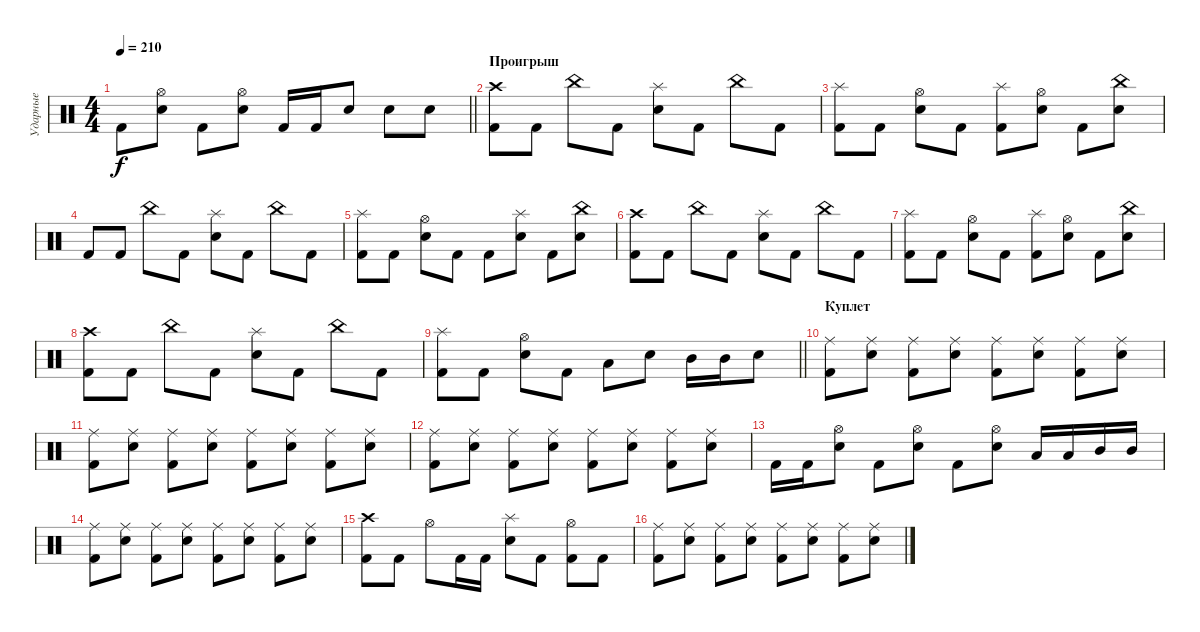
\track ("Ударные" "Ударные") {instrument percussion}
\staff {score}
\articulation defaults
\ts (4 4)
\tempo 210
\clef neutral
\barLineRight lightlight
\ks c "Kick (hit) 2".8{dy f}
("Electric Snare (hit)" "Hi-Hat (open)").8 "Kick (hit) 2".8 ("Electric Snare (hit)" "Hi-Hat (open)").8 "Kick (hit) 2".16 "Kick (hit) 2".16 "Electric Snare (hit)".8 "Electric Snare (hit)".8 "Electric Snare (hit)".8 |
\section ("" "Проигрыш")
("Kick (hit) 2" "Crash high (hit)").8 "Kick (hit) 2".8 "China (hit)".8 "Kick (hit) 2".8 ("Electric Snare (hit)" "Splash (hit)").8 "Kick (hit) 2".8 "China (hit)".8 "Kick (hit) 2".8 |
("Kick (hit) 2" "Splash (hit)").8 "Kick (hit) 2".8 ("Electric Snare (hit)" "Hi-Hat (open)").8 "Kick (hit) 2".8 ("Kick (hit) 2" "Splash (hit)").8 ("Electric Snare (hit)" "Hi-Hat (open)").8 "Kick (hit) 2".8 ("Electric Snare (hit)" "China (hit)").8 |
"Kick (hit) 2".8 "Kick (hit) 2".8 "China (hit)".8 "Kick (hit) 2".8 ("Electric Snare (hit)" "Splash (hit)").8 "Kick (hit) 2".8 "China (hit)".8 "Kick (hit) 2".8 |
("Kick (hit) 2" "Splash (hit)").8 "Kick (hit) 2".8 ("Electric Snare (hit)" "Hi-Hat (open)").8 "Kick (hit) 2".8 "Kick (hit) 2".8 ("Electric Snare (hit)" "Splash (hit)").8 "Kick (hit) 2".8 ("Electric Snare (hit)" "China (hit)").8 |
("Kick (hit) 2" "Crash high (hit)").8 "Kick (hit) 2".8 "China (hit)".8 "Kick (hit) 2".8 ("Electric Snare (hit)" "Splash (hit)").8 "Kick (hit) 2".8 "China (hit)".8 "Kick (hit) 2".8 |
("Kick (hit) 2" "Splash (hit)").8 "Kick (hit) 2".8 ("Electric Snare (hit)" "Hi-Hat (open)").8 "Kick (hit) 2".8 ("Kick (hit) 2" "Splash (hit)").8 ("Electric Snare (hit)" "Hi-Hat (open)").8 "Kick (hit) 2".8 ("Electric Snare (hit)" "China (hit)").8 |
("Kick (hit) 2" "Crash high (hit)").8 "Kick (hit) 2".8 "China (hit)".8 "Kick (hit) 2".8 ("Electric Snare (hit)" "Splash (hit)").8 "Kick (hit) 2".8 "China (hit)".8 "Kick (hit) 2".8 |
\barLineRight lightlight
("Kick (hit) 2" "Splash (hit)").8 "Kick (hit) 2".8 ("Electric Snare (hit)" "Hi-Hat (open)").8 "Kick (hit) 2".8 "Low Tom (hit)".8 "Electric Snare (hit)".8 "Mid Tom (hit)".16 "Mid Tom (hit)".16 "Electric Snare (hit)".8 |
\section ("" "Куплет")
("Kick (hit) 2" "Ride (middle)").8 ("Electric Snare (hit)" "Ride (middle)").8 ("Kick (hit) 2" "Ride (middle)").8 ("Electric Snare (hit)" "Ride (middle)").8 ("Kick (hit) 2" "Ride (middle)").8 ("Electric Snare (hit)" "Ride (middle)").8 ("Kick (hit) 2" "Ride (middle)").8 ("Electric Snare (hit)" "Ride (middle)").8 |
("Kick (hit) 2" "Ride (middle)").8 ("Electric Snare (hit)" "Ride (middle)").8 ("Kick (hit) 2" "Ride (middle)").8 ("Electric Snare (hit)" "Ride (middle)").8 ("Kick (hit) 2" "Ride (middle)").8 ("Electric Snare (hit)" "Ride (middle)").8 ("Kick (hit) 2" "Ride (middle)").8 ("Electric Snare (hit)" "Ride (middle)").8 |
("Kick (hit) 2" "Ride (middle)").8 ("Electric Snare (hit)" "Ride (middle)").8 ("Kick (hit) 2" "Ride (middle)").8 ("Electric Snare (hit)" "Ride (middle)").8 ("Kick (hit) 2" "Ride (middle)").8 ("Electric Snare (hit)" "Ride (middle)").8 ("Kick (hit) 2" "Ride (middle)").8 ("Electric Snare (hit)" "Ride (middle)").8 |
"Kick (hit) 2".16 "Kick (hit) 2".16 ("Electric Snare (hit)" "Hi-Hat (open)").8 "Kick (hit) 2".8 ("Electric Snare (hit)" "Hi-Hat (open)").8 "Kick (hit) 2".8 ("Electric Snare (hit)" "Hi-Hat (open)").8 "Low Tom (hit)".16 "Low Tom (hit)".16 "Mid Tom (hit)".16 "Mid Tom (hit)".16 |
("Kick (hit) 2" "Ride (middle)").8 ("Electric Snare (hit)" "Ride (middle)").8 ("Kick (hit) 2" "Ride (middle)").8 ("Electric Snare (hit)" "Ride (middle)").8 ("Kick (hit) 2" "Ride (middle)").8 ("Electric Snare (hit)" "Ride (middle)").8 ("Kick (hit) 2" "Ride (middle)").8 ("Electric Snare (hit)" "Ride (middle)").8 |
("Kick (hit) 2" "Crash high (hit)").8 "Kick (hit) 2".8 "Hi-Hat (open)".8 "Kick (hit) 2".16 "Kick (hit) 2".16 ("Electric Snare (hit)" "Splash (hit)").8 "Kick (hit) 2".8 ("Kick (hit) 2" "Hi-Hat (open)").8 "Kick (hit) 2".8 |
("Kick (hit) 2" "Ride (middle)").8 ("Electric Snare (hit)" "Ride (middle)").8 ("Kick (hit) 2" "Ride (middle)").8 ("Electric Snare (hit)" "Ride (middle)").8 ("Kick (hit) 2" "Ride (middle)").8 ("Electric Snare (hit)" "Ride (middle)").8 ("Kick (hit) 2" "Ride (middle)").8 ("Electric Snare (hit)" "Ride (middle)").8
